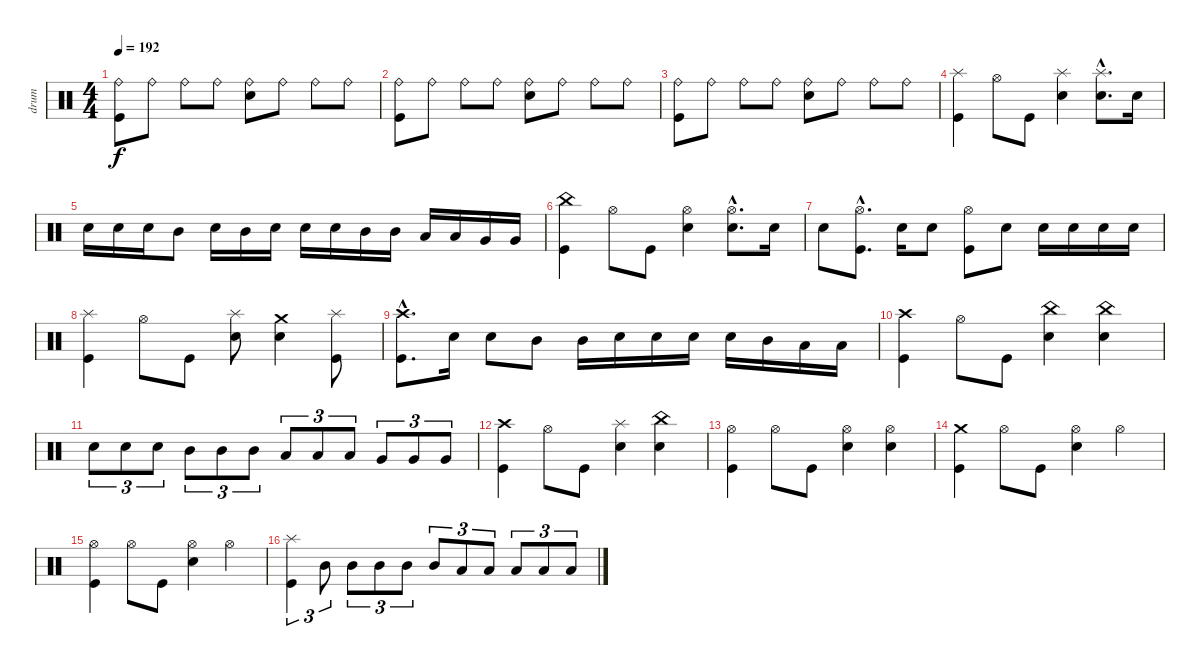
\track ("drum" "drum") {instrument percussion}
\staff {score}
\articulation defaults
\ts (4 4)
\tempo 192
\clef neutral
\ks c
("Kick (hit)" "Ride (bell)").8{dy f} "Ride (bell)".8 "Ride (bell)".8 "Ride (bell)".8 ("Electric Snare (hit)" "Ride (bell)").8 "Ride (bell)".8 "Ride (bell)".8 "Ride (bell)".8 |
("Kick (hit)" "Ride (bell)").8 "Ride (bell)".8 "Ride (bell)".8 "Ride (bell)".8 ("Electric Snare (hit)" "Ride (bell)").8 "Ride (bell)".8 "Ride (bell)".8 "Ride (bell)".8 |
("Kick (hit)" "Ride (bell)").8 "Ride (bell)".8 "Ride (bell)".8 "Ride (bell)".8 ("Electric Snare (hit)" "Ride (bell)").8 "Ride (bell)".8 "Ride (bell)".8 "Ride (bell)".8 |
("Kick (hit)" "Splash (hit)").4 "Hi-Hat (open)".8 "Kick (hit)".8 ("Electric Snare (hit)" "Splash (hit)").4 ("Electric Snare (hit)"{hac} "Splash (hit)"{hac}).8{d} "Electric Snare (hit)".16 |
"Electric Snare (hit)".16 "Electric Snare (hit)".16 "Electric Snare (hit)".16 "Mid Tom (hit)".8 "Electric Snare (hit)".16 "Mid Tom (hit)".16 "Electric Snare (hit)".16 "Electric Snare (hit)".16 "Electric Snare (hit)".16 "Mid Tom (hit)".16 "Mid Tom (hit)".16 "Low Tom (hit)".16 "Low Tom (hit)".16 "Very Low Tom (hit)".16 "Very Low Tom (hit)".16 |
("Kick (hit)" "China (hit)").4 "Hi-Hat (open)".8 "Kick (hit)".8 ("Electric Snare (hit)" "Hi-Hat (open)").4 ("Electric Snare (hit)"{hac} "Hi-Hat (open)"{hac}).8{d} "Electric Snare (hit)".16 |
"Electric Snare (hit)".8 ("Kick (hit)"{hac} "Hi-Hat (open)"{hac}).8{d} "Electric Snare (hit)".16 "Electric Snare (hit)".8 ("Kick (hit)" "Hi-Hat (open)").8 "Electric Snare (hit)".8 "Electric Snare (hit)".16 "Electric Snare (hit)".16 "Electric Snare (hit)".16 "Electric Snare (hit)".16 |
("Kick (hit)" "Splash (hit)").4 "Hi-Hat (open)".8 "Kick (hit)".8 ("Electric Snare (hit)" "Splash (hit)").8 ("Electric Snare (hit)" "Crash medium (hit)").4 ("Kick (hit)" "Splash (hit)").8 |
("Kick (hit)"{hac} "Crash high (hit)"{hac}).8{d} "Electric Snare (hit)".16 "Electric Snare (hit)".8 "Mid Tom (hit)".8 "Mid Tom (hit)".16 "Electric Snare (hit)".16 "Electric Snare (hit)".16 "Electric Snare (hit)".16 "Electric Snare (hit)".16 "Mid Tom (hit)".16 "Low Tom (hit)".16 "Low Tom (hit)".16 |
("Kick (hit)" "Crash high (hit)").4 "Hi-Hat (open)".8 "Kick (hit)".8 ("Electric Snare (hit)" "China (hit)").4 ("Electric Snare (hit)" "China (hit)").4 |
"Electric Snare (hit)".8{tu (3 2)} "Electric Snare (hit)".8{tu (3 2)} "Electric Snare (hit)".8{tu (3 2)} "Mid Tom (hit)".8{tu (3 2)} "Mid Tom (hit)".8{tu (3 2)} "Mid Tom (hit)".8{tu (3 2)} "Low Tom (hit)".8{tu (3 2)} "Low Tom (hit)".8{tu (3 2)} "Low Tom (hit)".8{tu (3 2)} "Very Low Tom (hit)".8{tu (3 2)} "Very Low Tom (hit)".8{tu (3 2)} "Very Low Tom (hit)".8{tu (3 2)} |
("Kick (hit)" "Crash high (hit)").4 "Hi-Hat (open)".8 "Kick (hit)".8 ("Electric Snare (hit)" "Splash (hit)").4 ("Electric Snare (hit)" "China (hit)").4 |
("Kick (hit)" "Hi-Hat (open)").4 "Hi-Hat (open)".8 "Kick (hit)".8 ("Electric Snare (hit)" "Hi-Hat (open)").4 ("Electric Snare (hit)" "Hi-Hat (open)").4 |
("Kick (hit)" "Crash medium (hit)").4 "Hi-Hat (open)".8 "Kick (hit)".8 ("Electric Snare (hit)" "Hi-Hat (open)").4 "Hi-Hat (open)".4 |
("Kick (hit)" "Hi-Hat (open)").4 "Hi-Hat (open)".8 "Kick (hit)".8 ("Electric Snare (hit)" "Hi-Hat (open)").4 "Hi-Hat (open)".4 |
("Kick (hit)" "Splash (hit)").4{tu (3 2)} "Mid Tom (hit)".8{tu (3 2)} "Mid Tom (hit)".8{tu (3 2)} "Mid Tom (hit)".8{tu (3 2)} "Mid Tom (hit)".8{tu (3 2)} "Mid Tom (hit)".8{tu (3 2)} "Low Tom (hit)".8{tu (3 2)} "Low Tom (hit)".8{tu (3 2)} "Low Tom (hit)".8{tu (3 2)} "Low Tom (hit)".8{tu (3 2)} "Low Tom (hit)".8{tu (3 2)}
